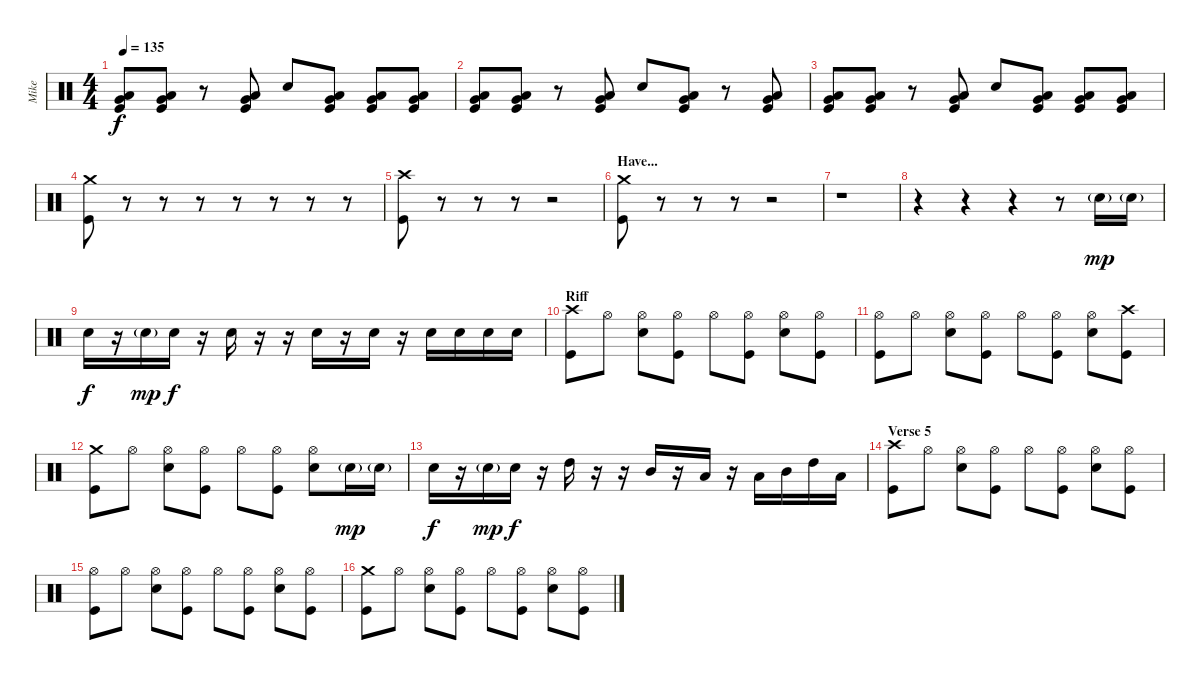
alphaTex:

\track ("Mike" "Mike") {instrument percussion}
\staff {score}
\articulation defaults
\ts (4 4)
\tempo 135
\clef neutral
\ks c
("Very Low Tom (hit)" "Low Tom (hit)" "Kick (hit)").8{dy f} ("Very Low Tom (hit)" "Low Tom (hit)" "Kick (hit)").8 r.8 ("Very Low Tom (hit)" "Low Tom (hit)" "Kick (hit)").8 "Electric Snare (hit)".8 ("Very Low Tom (hit)" "Low Tom (hit)" "Kick (hit)").8 ("Very Low Tom (hit)" "Low Tom (hit)" "Kick (hit)").8 ("Very Low Tom (hit)" "Low Tom (hit)" "Kick (hit)").8 |
("Very Low Tom (hit)" "Low Tom (hit)" "Kick (hit)").8 ("Very Low Tom (hit)" "Low Tom (hit)" "Kick (hit)").8 r.8 ("Very Low Tom (hit)" "Low Tom (hit)" "Kick (hit)").8 "Electric Snare (hit)".8 ("Very Low Tom (hit)" "Low Tom (hit)" "Kick (hit)").8 r.8 ("Very Low Tom (hit)" "Low Tom (hit)" "Kick (hit)").8 |
("Very Low Tom (hit)" "Low Tom (hit)" "Kick (hit)").8 ("Very Low Tom (hit)" "Low Tom (hit)" "Kick (hit)").8 r.8 ("Very Low Tom (hit)" "Low Tom (hit)" "Kick (hit)").8 "Electric Snare (hit)".8 ("Very Low Tom (hit)" "Low Tom (hit)" "Kick (hit)").8 ("Very Low Tom (hit)" "Low Tom (hit)" "Kick (hit)").8 ("Very Low Tom (hit)" "Low Tom (hit)" "Kick (hit)").8 |
("Crash medium (hit)" "Kick (hit)").8 r.8 r.8 r.8 r.8 r.8 r.8 r.8 |
("Crash high (hit)" "Kick (hit)").8 r.8 r.8 r.8 r.2 |
\section ("" "Have...")
("Crash medium (hit)" "Kick (hit)").8 r.8 r.8 r.8 r.2 |
r.1 |
r.4 r.4 r.4 r.8 "Electric Snare (hit)"{g}.16{dy mp} "Electric Snare (hit)"{g}.16 |
"Electric Snare (hit)".16{dy f} r.16 "Electric Snare (hit)"{g}.16{dy mp} "Electric Snare (hit)".16{dy f} r.16 "Electric Snare (hit)".16 r.16 r.16 "Electric Snare (hit)".16 r.16 "Electric Snare (hit)".16 r.16 "Electric Snare (hit)".16 "Electric Snare (hit)".16 "Electric Snare (hit)".16 "Electric Snare (hit)".16 |
\section ("" "Riff")
("Crash high (hit)" "Kick (hit)").8 "Hi-Hat (open)".8 ("Hi-Hat (open)" "Electric Snare (hit)").8 ("Hi-Hat (open)" "Kick (hit)").8 "Hi-Hat (open)".8 ("Hi-Hat (open)" "Kick (hit)").8 ("Hi-Hat (open)" "Electric Snare (hit)").8 ("Hi-Hat (open)" "Kick (hit)").8 |
("Hi-Hat (open)" "Kick (hit)").8 "Hi-Hat (open)".8 ("Hi-Hat (open)" "Electric Snare (hit)").8 ("Hi-Hat (open)" "Kick (hit)").8 "Hi-Hat (open)".8 ("Hi-Hat (open)" "Kick (hit)").8 ("Hi-Hat (open)" "Electric Snare (hit)").8 ("Crash high (hit)" "Kick (hit)").8 |
("Crash medium (hit)" "Kick (hit)").8 "Hi-Hat (open)".8 ("Hi-Hat (open)" "Electric Snare (hit)").8 ("Hi-Hat (open)" "Kick (hit)").8 "Hi-Hat (open)".8 ("Hi-Hat (open)" "Kick (hit)").8 ("Hi-Hat (open)" "Electric Snare (hit)").8 "Electric Snare (hit)"{g}.16{dy mp} "Electric Snare (hit)"{g}.16 |
"Electric Snare (hit)".16{dy f} r.16 "Electric Snare (hit)"{g}.16{dy mp} "Electric Snare (hit)".16{dy f} r.16 "High Tom (hit)".16 r.16 r.16 "Mid Tom (hit)".16 r.16 "Low Tom (hit)".16 r.16 "Low Tom (hit)".16 "Mid Tom (hit)".16 "High Tom (hit)".16 "Low Tom (hit)".16 |
\section ("" "Verse 5")
("Crash high (hit)" "Kick (hit)").8 "Hi-Hat (open)".8 ("Hi-Hat (open)" "Electric Snare (hit)").8 ("Hi-Hat (open)" "Kick (hit)").8 "Hi-Hat (open)".8 ("Hi-Hat (open)" "Kick (hit)").8 ("Hi-Hat (open)" "Electric Snare (hit)").8 ("Hi-Hat (open)" "Kick (hit)").8 |
("Hi-Hat (open)" "Kick (hit)").8 "Hi-Hat (open)".8 ("Hi-Hat (open)" "Electric Snare (hit)").8 ("Hi-Hat (open)" "Kick (hit)").8 "Hi-Hat (open)".8 ("Hi-Hat (open)" "Kick (hit)").8 ("Hi-Hat (open)" "Electric Snare (hit)").8 ("Hi-Hat (open)" "Kick (hit)").8 |
("Crash medium (hit)" "Kick (hit)").8 "Hi-Hat (open)".8 ("Hi-Hat (open)" "Electric Snare (hit)").8 ("Hi-Hat (open)" "Kick (hit)").8 "Hi-Hat (open)".8 ("Hi-Hat (open)" "Kick (hit)").8 ("Hi-Hat (open)" "Electric Snare (hit)").8 ("Hi-Hat (open)" "Kick (hit)").8
